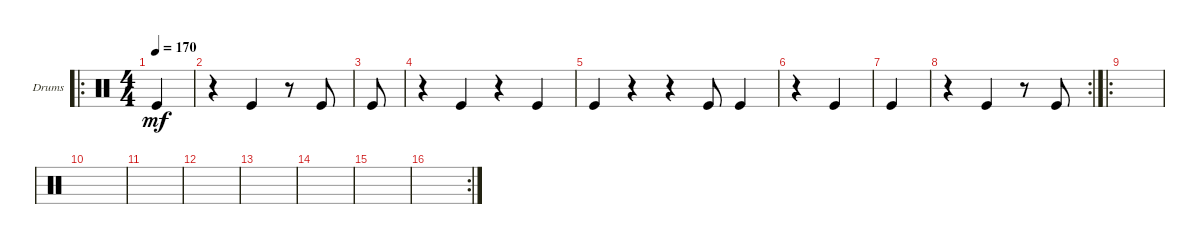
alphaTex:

\defaultSystemsLayout 4
\bracketExtendMode groupsimilarinstruments
\firstSystemTrackNameOrientation horizontal
\otherSystemsTrackNameOrientation horizontal
\track ("Drumkit" "Drums") {instrument percussion}
\staff {score}
\articulation defaults
\ro
\ts (4 4)
\tempo 170
\clef neutral
\ks c "Kick (hit)".4{dy mf}
|
r.4 "Kick (hit)".4 r.8 "Kick (hit)".8 |
"Kick (hit)".8 |
r.4 "Kick (hit)".4 r.4 "Kick (hit)".4 |
"Kick (hit)".4 r.4 r.4 "Kick (hit)".8 "Kick (hit)".4 |
r.4 "Kick (hit)".4 |
"Kick (hit)".4 |
\rc 2
r.4 "Kick (hit)".4 r.8 "Kick (hit)".8 |
\ro
|
|
|
|
|
|
|
\rc 2
